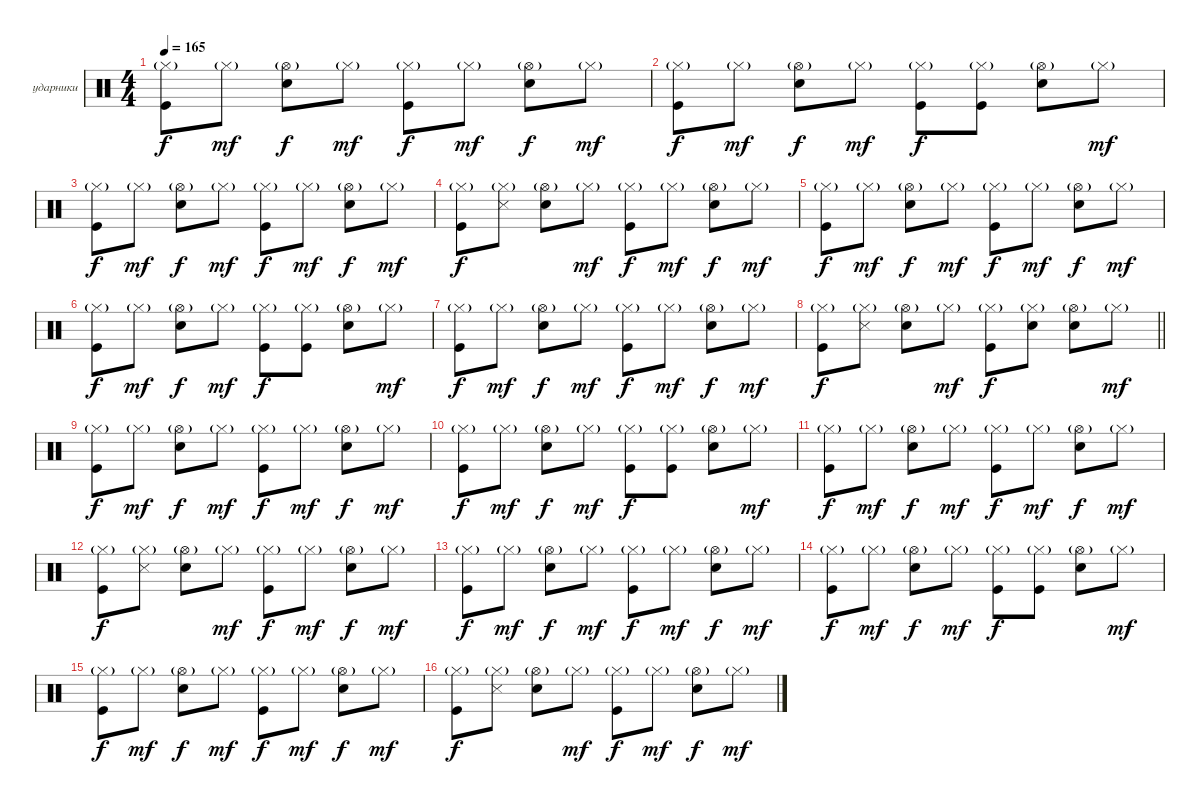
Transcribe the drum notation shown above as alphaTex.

\bracketExtendMode groupsimilarinstruments
\firstSystemTrackNameOrientation horizontal
\otherSystemsTrackNameOrientation horizontal
\track ("Георгий Гурьянов" "ударники") {instrument percussion}
\staff {score}
\articulation defaults
\ts (4 4)
\tempo 165
\clef neutral
\scale
0.333333
\ks c
("Hi-Hat (closed)"{g} "Kick (hit)").8{dy f} "Hi-Hat (closed)"{g}.8{dy mf} ("Hi-Hat (open)"{g} "Snare (hit) 2").8{dy f} "Hi-Hat (closed)"{g}.8{dy mf} ("Hi-Hat (closed)"{g} "Kick (hit)").8{dy f} "Hi-Hat (closed)"{g}.8{dy mf} ("Hi-Hat (open)"{g} "Snare (hit) 2").8{dy f} "Hi-Hat (closed)"{g}.8{dy mf} |
\scale
0.333333 ("Hi-Hat (closed)"{g} "Kick (hit)").8{dy f} "Hi-Hat (closed)"{g}.8{dy mf} ("Hi-Hat (open)"{g} "Snare (hit) 2").8{dy f} "Hi-Hat (closed)"{g}.8{dy mf} ("Hi-Hat (closed)"{g} "Kick (hit)").8{dy f} ("Hi-Hat (closed)"{g} "Kick (hit)").8 ("Hi-Hat (open)"{g} "Snare (hit) 2").8 "Hi-Hat (closed)"{g}.8{dy mf} |
\scale
0.333333 ("Hi-Hat (closed)"{g} "Kick (hit)").8{dy f} "Hi-Hat (closed)"{g}.8{dy mf} ("Hi-Hat (open)"{g} "Snare (hit) 2").8{dy f} "Hi-Hat (closed)"{g}.8{dy mf} ("Hi-Hat (closed)"{g} "Kick (hit)").8{dy f} "Hi-Hat (closed)"{g}.8{dy mf} ("Hi-Hat (open)"{g} "Snare (hit) 2").8{dy f} "Hi-Hat (closed)"{g}.8{dy mf} |
\scale
0.333333 ("Hi-Hat (closed)"{g} "Kick (hit)").8{dy f} ("Hi-Hat (closed)"{g} "Snare (side stick) 3").8 ("Hi-Hat (open)"{g} "Snare (hit) 2").8 "Hi-Hat (closed)"{g}.8{dy mf} ("Hi-Hat (closed)"{g} "Kick (hit)").8{dy f} "Hi-Hat (closed)"{g}.8{dy mf} ("Hi-Hat (open)"{g} "Snare (hit) 2").8{dy f} "Hi-Hat (closed)"{g}.8{dy mf} |
\scale
0.333333 ("Hi-Hat (closed)"{g} "Kick (hit)").8{dy f} "Hi-Hat (closed)"{g}.8{dy mf} ("Hi-Hat (open)"{g} "Snare (hit) 2").8{dy f} "Hi-Hat (closed)"{g}.8{dy mf} ("Hi-Hat (closed)"{g} "Kick (hit)").8{dy f} "Hi-Hat (closed)"{g}.8{dy mf} ("Hi-Hat (open)"{g} "Snare (hit) 2").8{dy f} "Hi-Hat (closed)"{g}.8{dy mf} |
\scale
0.333333 ("Hi-Hat (closed)"{g} "Kick (hit)").8{dy f} "Hi-Hat (closed)"{g}.8{dy mf} ("Hi-Hat (open)"{g} "Snare (hit) 2").8{dy f} "Hi-Hat (closed)"{g}.8{dy mf} ("Hi-Hat (closed)"{g} "Kick (hit)").8{dy f} ("Hi-Hat (closed)"{g} "Kick (hit)").8 ("Hi-Hat (open)"{g} "Snare (hit) 2").8 "Hi-Hat (closed)"{g}.8{dy mf} |
\scale
0.333333 ("Hi-Hat (closed)"{g} "Kick (hit)").8{dy f} "Hi-Hat (closed)"{g}.8{dy mf} ("Hi-Hat (open)"{g} "Snare (hit) 2").8{dy f} "Hi-Hat (closed)"{g}.8{dy mf} ("Hi-Hat (closed)"{g} "Kick (hit)").8{dy f} "Hi-Hat (closed)"{g}.8{dy mf} ("Hi-Hat (open)"{g} "Snare (hit) 2").8{dy f} "Hi-Hat (closed)"{g}.8{dy mf} |
\scale
0.333333
\barLineRight lightlight
("Hi-Hat (closed)"{g} "Kick (hit)").8{dy f} ("Hi-Hat (closed)"{g} "Snare (side stick) 3").8 ("Hi-Hat (open)"{g} "Snare (hit) 2").8 "Hi-Hat (closed)"{g}.8{dy mf} ("Hi-Hat (closed)"{g} "Kick (hit)").8{dy f} ("Hi-Hat (closed)"{g} "Snare (hit) 2").8 ("Hi-Hat (open)"{g} "Snare (hit) 2").8 "Hi-Hat (closed)"{g}.8{dy mf} |
\scale
0.333333 ("Hi-Hat (closed)"{g} "Kick (hit)").8{dy f} "Hi-Hat (closed)"{g}.8{dy mf} ("Hi-Hat (open)"{g} "Snare (hit) 2").8{dy f} "Hi-Hat (closed)"{g}.8{dy mf} ("Hi-Hat (closed)"{g} "Kick (hit)").8{dy f} "Hi-Hat (closed)"{g}.8{dy mf} ("Hi-Hat (open)"{g} "Snare (hit) 2").8{dy f} "Hi-Hat (closed)"{g}.8{dy mf} |
\scale
0.333333 ("Hi-Hat (closed)"{g} "Kick (hit)").8{dy f} "Hi-Hat (closed)"{g}.8{dy mf} ("Hi-Hat (open)"{g} "Snare (hit) 2").8{dy f} "Hi-Hat (closed)"{g}.8{dy mf} ("Hi-Hat (closed)"{g} "Kick (hit)").8{dy f} ("Hi-Hat (closed)"{g} "Kick (hit)").8 ("Hi-Hat (open)"{g} "Snare (hit) 2").8 "Hi-Hat (closed)"{g}.8{dy mf} |
\scale
0.333333 ("Hi-Hat (closed)"{g} "Kick (hit)").8{dy f} "Hi-Hat (closed)"{g}.8{dy mf} ("Hi-Hat (open)"{g} "Snare (hit) 2").8{dy f} "Hi-Hat (closed)"{g}.8{dy mf} ("Hi-Hat (closed)"{g} "Kick (hit)").8{dy f} "Hi-Hat (closed)"{g}.8{dy mf} ("Hi-Hat (open)"{g} "Snare (hit) 2").8{dy f} "Hi-Hat (closed)"{g}.8{dy mf} |
\scale
0.333333 ("Hi-Hat (closed)"{g} "Kick (hit)").8{dy f} ("Hi-Hat (closed)"{g} "Snare (side stick) 3").8 ("Hi-Hat (open)"{g} "Snare (hit) 2").8 "Hi-Hat (closed)"{g}.8{dy mf} ("Hi-Hat (closed)"{g} "Kick (hit)").8{dy f} "Hi-Hat (closed)"{g}.8{dy mf} ("Hi-Hat (open)"{g} "Snare (hit) 2").8{dy f} "Hi-Hat (closed)"{g}.8{dy mf} |
\scale
0.333333 ("Hi-Hat (closed)"{g} "Kick (hit)").8{dy f} "Hi-Hat (closed)"{g}.8{dy mf} ("Hi-Hat (open)"{g} "Snare (hit) 2").8{dy f} "Hi-Hat (closed)"{g}.8{dy mf} ("Hi-Hat (closed)"{g} "Kick (hit)").8{dy f} "Hi-Hat (closed)"{g}.8{dy mf} ("Hi-Hat (open)"{g} "Snare (hit) 2").8{dy f} "Hi-Hat (closed)"{g}.8{dy mf} |
\scale
0.333333 ("Hi-Hat (closed)"{g} "Kick (hit)").8{dy f} "Hi-Hat (closed)"{g}.8{dy mf} ("Hi-Hat (open)"{g} "Snare (hit) 2").8{dy f} "Hi-Hat (closed)"{g}.8{dy mf} ("Hi-Hat (closed)"{g} "Kick (hit)").8{dy f} ("Hi-Hat (closed)"{g} "Kick (hit)").8 ("Hi-Hat (open)"{g} "Snare (hit) 2").8 "Hi-Hat (closed)"{g}.8{dy mf} |
\scale
0.333333 ("Hi-Hat (closed)"{g} "Kick (hit)").8{dy f} "Hi-Hat (closed)"{g}.8{dy mf} ("Hi-Hat (open)"{g} "Snare (hit) 2").8{dy f} "Hi-Hat (closed)"{g}.8{dy mf} ("Hi-Hat (closed)"{g} "Kick (hit)").8{dy f} "Hi-Hat (closed)"{g}.8{dy mf} ("Hi-Hat (open)"{g} "Snare (hit) 2").8{dy f} "Hi-Hat (closed)"{g}.8{dy mf} |
\scale
0.333333 ("Hi-Hat (closed)"{g} "Kick (hit)").8{dy f} ("Hi-Hat (closed)"{g} "Snare (side stick) 3").8 ("Hi-Hat (open)"{g} "Snare (hit) 2").8 "Hi-Hat (closed)"{g}.8{dy mf} ("Hi-Hat (closed)"{g} "Kick (hit)").8{dy f} "Hi-Hat (closed)"{g}.8{dy mf} ("Hi-Hat (open)"{g} "Snare (hit) 2").8{dy f} "Hi-Hat (closed)"{g}.8{dy mf}
